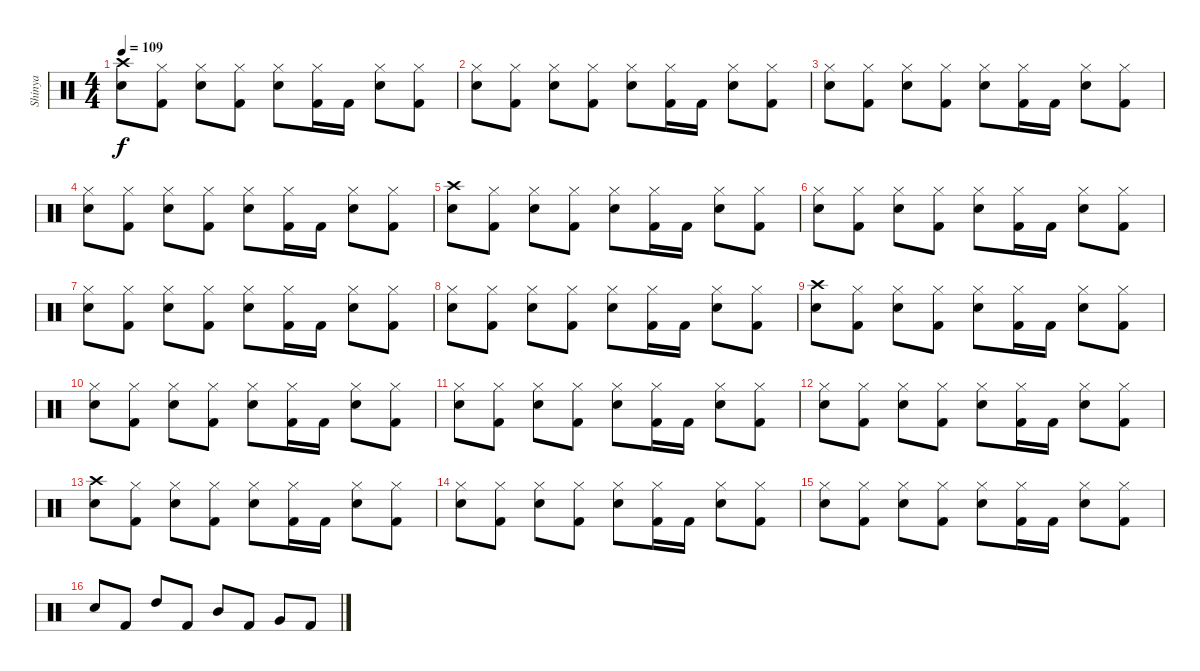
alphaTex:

\track ("Shinya" "Shinya") {instrument percussion}
\staff {score}
\articulation defaults
\ts (4 4)
\tempo 109
\clef neutral
\ks c
("Crash high (hit)" "Snare (hit) 2").8{dy f} ("Hi-Hat (closed)" "Kick (hit) 2").8 ("Hi-Hat (closed)" "Snare (hit) 2").8 ("Hi-Hat (closed)" "Kick (hit) 2").8 ("Hi-Hat (closed)" "Snare (hit) 2").8 ("Hi-Hat (closed)" "Kick (hit) 2").16 "Kick (hit) 2".16 ("Hi-Hat (closed)" "Snare (hit) 2").8 ("Hi-Hat (closed)" "Kick (hit) 2").8 |
("Hi-Hat (closed)" "Snare (hit) 2").8 ("Hi-Hat (closed)" "Kick (hit) 2").8 ("Hi-Hat (closed)" "Snare (hit) 2").8 ("Hi-Hat (closed)" "Kick (hit) 2").8 ("Hi-Hat (closed)" "Snare (hit) 2").8 ("Hi-Hat (closed)" "Kick (hit) 2").16 "Kick (hit) 2".16 ("Hi-Hat (closed)" "Snare (hit) 2").8 ("Hi-Hat (closed)" "Kick (hit) 2").8 |
("Hi-Hat (closed)" "Snare (hit) 2").8 ("Hi-Hat (closed)" "Kick (hit) 2").8 ("Hi-Hat (closed)" "Snare (hit) 2").8 ("Hi-Hat (closed)" "Kick (hit) 2").8 ("Hi-Hat (closed)" "Snare (hit) 2").8 ("Hi-Hat (closed)" "Kick (hit) 2").16 "Kick (hit) 2".16 ("Hi-Hat (closed)" "Snare (hit) 2").8 ("Hi-Hat (closed)" "Kick (hit) 2").8 |
("Hi-Hat (closed)" "Snare (hit) 2").8 ("Hi-Hat (closed)" "Kick (hit) 2").8 ("Hi-Hat (closed)" "Snare (hit) 2").8 ("Hi-Hat (closed)" "Kick (hit) 2").8 ("Hi-Hat (closed)" "Snare (hit) 2").8 ("Hi-Hat (closed)" "Kick (hit) 2").16 "Kick (hit) 2".16 ("Hi-Hat (closed)" "Snare (hit) 2").8 ("Hi-Hat (closed)" "Kick (hit) 2").8 |
("Crash high (hit)" "Snare (hit) 2").8 ("Hi-Hat (closed)" "Kick (hit) 2").8 ("Hi-Hat (closed)" "Snare (hit) 2").8 ("Hi-Hat (closed)" "Kick (hit) 2").8 ("Hi-Hat (closed)" "Snare (hit) 2").8 ("Hi-Hat (closed)" "Kick (hit) 2").16 "Kick (hit) 2".16 ("Hi-Hat (closed)" "Snare (hit) 2").8 ("Hi-Hat (closed)" "Kick (hit) 2").8 |
("Hi-Hat (closed)" "Snare (hit) 2").8 ("Hi-Hat (closed)" "Kick (hit) 2").8 ("Hi-Hat (closed)" "Snare (hit) 2").8 ("Hi-Hat (closed)" "Kick (hit) 2").8 ("Hi-Hat (closed)" "Snare (hit) 2").8 ("Hi-Hat (closed)" "Kick (hit) 2").16 "Kick (hit) 2".16 ("Hi-Hat (closed)" "Snare (hit) 2").8 ("Hi-Hat (closed)" "Kick (hit) 2").8 |
("Hi-Hat (closed)" "Snare (hit) 2").8 ("Hi-Hat (closed)" "Kick (hit) 2").8 ("Hi-Hat (closed)" "Snare (hit) 2").8 ("Hi-Hat (closed)" "Kick (hit) 2").8 ("Hi-Hat (closed)" "Snare (hit) 2").8 ("Hi-Hat (closed)" "Kick (hit) 2").16 "Kick (hit) 2".16 ("Hi-Hat (closed)" "Snare (hit) 2").8 ("Hi-Hat (closed)" "Kick (hit) 2").8 |
("Hi-Hat (closed)" "Snare (hit) 2").8 ("Hi-Hat (closed)" "Kick (hit) 2").8 ("Hi-Hat (closed)" "Snare (hit) 2").8 ("Hi-Hat (closed)" "Kick (hit) 2").8 ("Hi-Hat (closed)" "Snare (hit) 2").8 ("Hi-Hat (closed)" "Kick (hit) 2").16 "Kick (hit) 2".16 ("Hi-Hat (closed)" "Snare (hit) 2").8 ("Hi-Hat (closed)" "Kick (hit) 2").8 |
("Crash high (hit)" "Snare (hit) 2").8 ("Hi-Hat (closed)" "Kick (hit) 2").8 ("Hi-Hat (closed)" "Snare (hit) 2").8 ("Hi-Hat (closed)" "Kick (hit) 2").8 ("Hi-Hat (closed)" "Snare (hit) 2").8 ("Hi-Hat (closed)" "Kick (hit) 2").16 "Kick (hit) 2".16 ("Hi-Hat (closed)" "Snare (hit) 2").8 ("Hi-Hat (closed)" "Kick (hit) 2").8 |
("Hi-Hat (closed)" "Snare (hit) 2").8 ("Hi-Hat (closed)" "Kick (hit) 2").8 ("Hi-Hat (closed)" "Snare (hit) 2").8 ("Hi-Hat (closed)" "Kick (hit) 2").8 ("Hi-Hat (closed)" "Snare (hit) 2").8 ("Hi-Hat (closed)" "Kick (hit) 2").16 "Kick (hit) 2".16 ("Hi-Hat (closed)" "Snare (hit) 2").8 ("Hi-Hat (closed)" "Kick (hit) 2").8 |
("Hi-Hat (closed)" "Snare (hit) 2").8 ("Hi-Hat (closed)" "Kick (hit) 2").8 ("Hi-Hat (closed)" "Snare (hit) 2").8 ("Hi-Hat (closed)" "Kick (hit) 2").8 ("Hi-Hat (closed)" "Snare (hit) 2").8 ("Hi-Hat (closed)" "Kick (hit) 2").16 "Kick (hit) 2".16 ("Hi-Hat (closed)" "Snare (hit) 2").8 ("Hi-Hat (closed)" "Kick (hit) 2").8 |
("Hi-Hat (closed)" "Snare (hit) 2").8 ("Hi-Hat (closed)" "Kick (hit) 2").8 ("Hi-Hat (closed)" "Snare (hit) 2").8 ("Hi-Hat (closed)" "Kick (hit) 2").8 ("Hi-Hat (closed)" "Snare (hit) 2").8 ("Hi-Hat (closed)" "Kick (hit) 2").16 "Kick (hit) 2".16 ("Hi-Hat (closed)" "Snare (hit) 2").8 ("Hi-Hat (closed)" "Kick (hit) 2").8 |
("Crash high (hit)" "Snare (hit) 2").8 ("Hi-Hat (closed)" "Kick (hit) 2").8 ("Hi-Hat (closed)" "Snare (hit) 2").8 ("Hi-Hat (closed)" "Kick (hit) 2").8 ("Hi-Hat (closed)" "Snare (hit) 2").8 ("Hi-Hat (closed)" "Kick (hit) 2").16 "Kick (hit) 2".16 ("Hi-Hat (closed)" "Snare (hit) 2").8 ("Hi-Hat (closed)" "Kick (hit) 2").8 |
("Hi-Hat (closed)" "Snare (hit) 2").8 ("Hi-Hat (closed)" "Kick (hit) 2").8 ("Hi-Hat (closed)" "Snare (hit) 2").8 ("Hi-Hat (closed)" "Kick (hit) 2").8 ("Hi-Hat (closed)" "Snare (hit) 2").8 ("Hi-Hat (closed)" "Kick (hit) 2").16 "Kick (hit) 2".16 ("Hi-Hat (closed)" "Snare (hit) 2").8 ("Hi-Hat (closed)" "Kick (hit) 2").8 |
("Hi-Hat (closed)" "Snare (hit) 2").8 ("Hi-Hat (closed)" "Kick (hit) 2").8 ("Hi-Hat (closed)" "Snare (hit) 2").8 ("Hi-Hat (closed)" "Kick (hit) 2").8 ("Hi-Hat (closed)" "Snare (hit) 2").8 ("Hi-Hat (closed)" "Kick (hit) 2").16 "Kick (hit) 2".16 ("Hi-Hat (closed)" "Snare (hit) 2").8 ("Hi-Hat (closed)" "Kick (hit) 2").8 |
"Snare (hit) 2".8 "Kick (hit) 2".8 "High Tom (hit)".8 "Kick (hit) 2".8 "Mid Tom (hit)".8 "Kick (hit) 2".8 "Very Low Tom (hit)".8 "Kick (hit) 2".8
